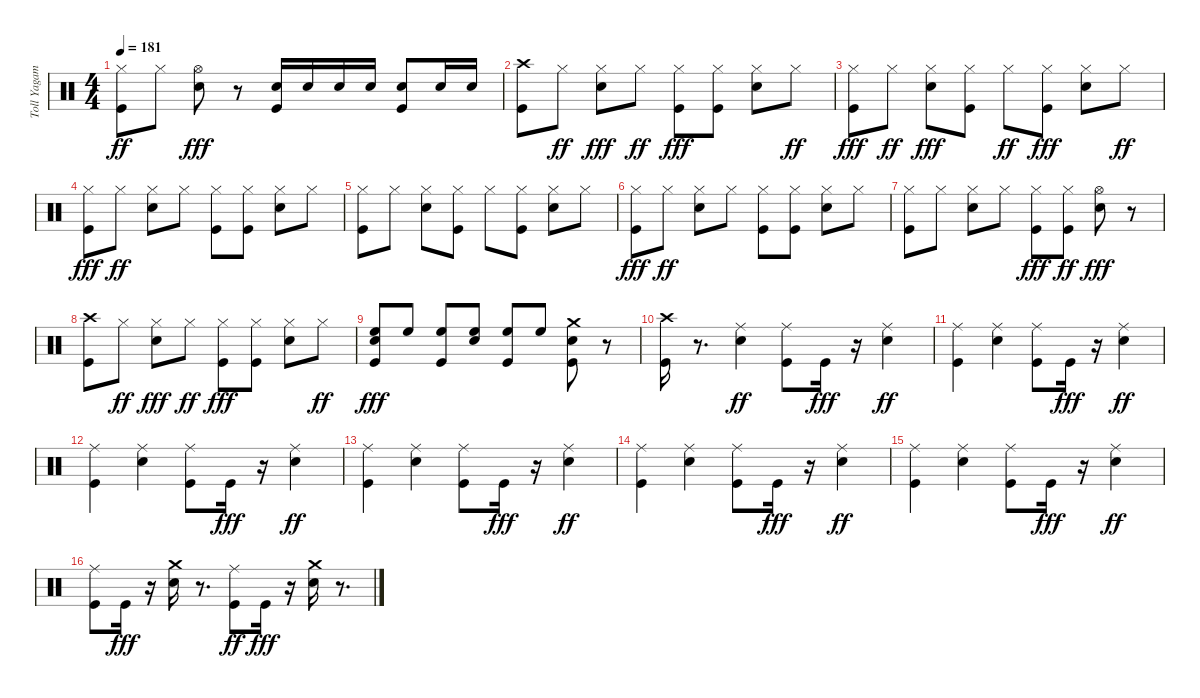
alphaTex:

\track ("Toll Yagami" "Toll Yagam") {instrument percussion}
\staff {score}
\articulation defaults
\ts (4 4)
\tempo 181
\clef neutral
\ks c
("Kick (hit)" "Hi-Hat (closed)").8{dy ff} "Hi-Hat (closed)".8 ("Snare (hit) 2" "Hi-Hat (open)").8{dy fff} r.8 ("Kick (hit)" "Snare (hit) 2").16 "Snare (hit) 2".16 "Snare (hit) 2".16 "Snare (hit) 2".16 ("Snare (hit) 2" "Kick (hit)").8 "Snare (hit) 2".16 "Snare (hit) 2".16 |
("Crash high (hit)" "Kick (hit)").8 "Hi-Hat (closed)".8{dy ff} ("Hi-Hat (closed)" "Snare (hit) 2").8{dy fff} "Hi-Hat (closed)".8{dy ff} ("Hi-Hat (closed)" "Kick (hit)").8{dy fff} ("Hi-Hat (closed)" "Kick (hit)").8 ("Hi-Hat (closed)" "Snare (hit) 2").8 "Hi-Hat (closed)".8{dy ff} |
("Hi-Hat (closed)" "Kick (hit)").8{dy fff} "Hi-Hat (closed)".8{dy ff} ("Hi-Hat (closed)" "Snare (hit) 2").8{dy fff} ("Hi-Hat (closed)" "Kick (hit)").8 "Hi-Hat (closed)".8{dy ff} ("Hi-Hat (closed)" "Kick (hit)").8{dy fff} ("Hi-Hat (closed)" "Snare (hit) 2").8 "Hi-Hat (closed)".8{dy ff} |
("Hi-Hat (closed)" "Kick (hit)").8{dy fff} "Hi-Hat (closed)".8{dy ff} ("Snare (hit) 2" "Hi-Hat (closed)").8 "Hi-Hat (closed)".8 ("Kick (hit)" "Hi-Hat (closed)").8 ("Kick (hit)" "Hi-Hat (closed)").8 ("Snare (hit) 2" "Hi-Hat (closed)").8 "Hi-Hat (closed)".8 |
("Kick (hit)" "Hi-Hat (closed)").8 "Hi-Hat (closed)".8 ("Snare (hit) 2" "Hi-Hat (closed)").8 ("Kick (hit)" "Hi-Hat (closed)").8 "Hi-Hat (closed)".8 ("Kick (hit)" "Hi-Hat (closed)").8 ("Snare (hit) 2" "Hi-Hat (closed)").8 "Hi-Hat (closed)".8 |
("Hi-Hat (closed)" "Kick (hit)").8{dy fff} "Hi-Hat (closed)".8{dy ff} ("Snare (hit) 2" "Hi-Hat (closed)").8 "Hi-Hat (closed)".8 ("Kick (hit)" "Hi-Hat (closed)").8 ("Kick (hit)" "Hi-Hat (closed)").8 ("Snare (hit) 2" "Hi-Hat (closed)").8 "Hi-Hat (closed)".8 |
("Kick (hit)" "Hi-Hat (closed)").8 "Hi-Hat (closed)".8 ("Snare (hit) 2" "Hi-Hat (closed)").8 "Hi-Hat (closed)".8 ("Hi-Hat (closed)" "Kick (hit)").8{dy fff} ("Kick (hit)" "Hi-Hat (closed)").8{dy ff} ("Hi-Hat (open)" "Snare (hit) 2").8{dy fff} r.8 |
("Crash high (hit)" "Kick (hit)").8 "Hi-Hat (closed)".8{dy ff} ("Hi-Hat (closed)" "Snare (hit) 2").8{dy fff} "Hi-Hat (closed)".8{dy ff} ("Hi-Hat (closed)" "Kick (hit)").8{dy fff} ("Hi-Hat (closed)" "Kick (hit)").8 ("Hi-Hat (closed)" "Snare (hit) 2").8 "Hi-Hat (closed)".8{dy ff} |
("Kick (hit)" "Snare (hit) 2" "High Floor Tom (hit)").8{dy fff} "High Floor Tom (hit)".8 ("Kick (hit)" "High Floor Tom (hit)").8 ("Snare (hit) 2" "High Floor Tom (hit)").8 ("Kick (hit)" "High Floor Tom (hit)").8 "High Floor Tom (hit)".8 ("Kick (hit)" "Crash medium (hit)" "Snare (hit) 2").8 r.8 |
("Crash high (hit)" "Kick (hit)").16 r.8{d} ("Snare (hit) 2" "Ride (middle)").4{dy ff} ("Kick (hit)" "Ride (middle)").8 "Kick (hit)".16{dy fff} r.16 ("Snare (hit) 2" "Ride (middle)").4{dy ff} |
("Kick (hit)" "Ride (middle)").4 ("Snare (hit) 2" "Ride (middle)").4 ("Kick (hit)" "Ride (middle)").8 "Kick (hit)".16{dy fff} r.16 ("Snare (hit) 2" "Ride (middle)").4{dy ff} |
("Kick (hit)" "Ride (middle)").4 ("Snare (hit) 2" "Ride (middle)").4 ("Kick (hit)" "Ride (middle)").8 "Kick (hit)".16{dy fff} r.16 ("Snare (hit) 2" "Ride (middle)").4{dy ff} |
("Kick (hit)" "Ride (middle)").4 ("Snare (hit) 2" "Ride (middle)").4 ("Kick (hit)" "Ride (middle)").8 "Kick (hit)".16{dy fff} r.16 ("Snare (hit) 2" "Ride (middle)").4{dy ff} |
("Kick (hit)" "Ride (middle)").4 ("Snare (hit) 2" "Ride (middle)").4 ("Kick (hit)" "Ride (middle)").8 "Kick (hit)".16{dy fff} r.16 ("Snare (hit) 2" "Ride (middle)").4{dy ff} |
("Kick (hit)" "Ride (middle)").4 ("Snare (hit) 2" "Ride (middle)").4 ("Kick (hit)" "Ride (middle)").8 "Kick (hit)".16{dy fff} r.16 ("Snare (hit) 2" "Ride (middle)").4{dy ff} |
("Kick (hit)" "Ride (middle)").8 "Kick (hit)".16{dy fff} r.16 ("Crash medium (hit)" "Snare (hit) 2").16 r.8{d} ("Kick (hit)" "Ride (middle)").8{dy ff} "Kick (hit)".16{dy fff} r.16 ("Crash medium (hit)" "Snare (hit) 2").16 r.8{d}
